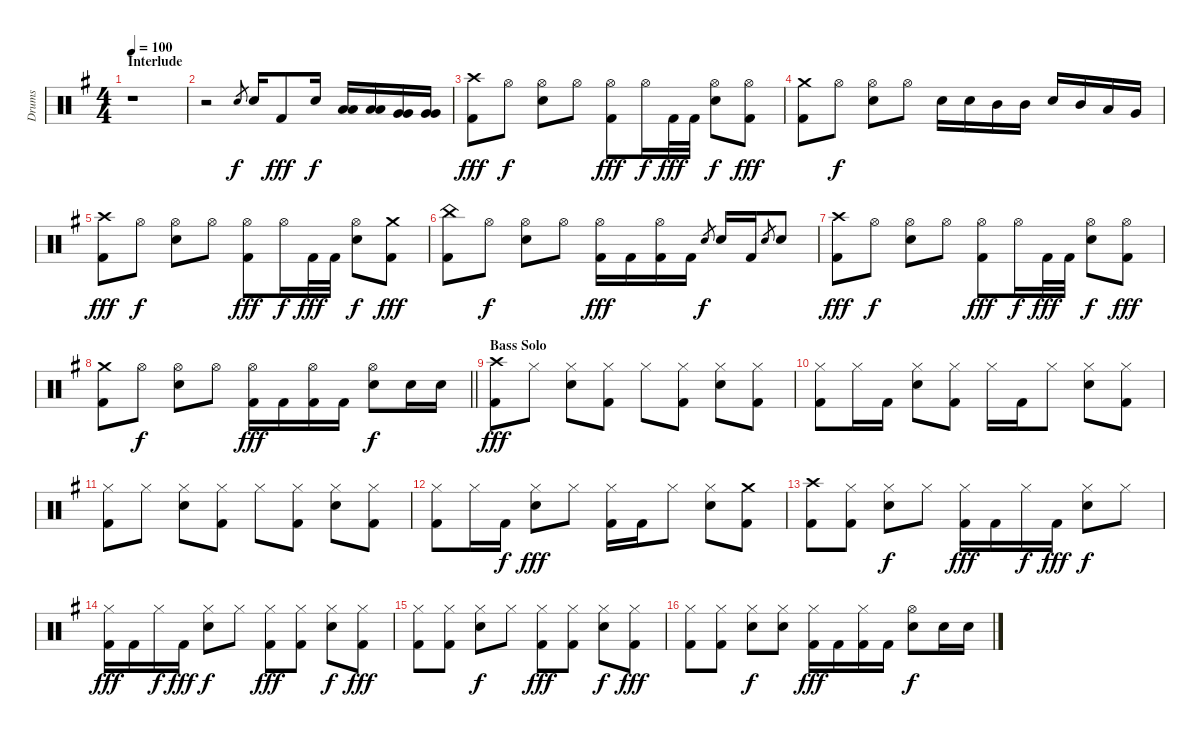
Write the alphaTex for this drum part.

\track ("Drums" "Drums") {instrument percussion}
\staff {score}
\articulation defaults
\ts (4 4)
\section ("" "Interlude")
\tempo 100
\clef neutral
\ks eminor
r.1{dy fff} |
r.2 "Snare (hit) 2".8{gr dy f} "Snare (hit) 2".16 "Kick (hit) 2".8{dy fff} "Snare (hit) 2".16{dy f} ("Low Tom (hit)" "Low Tom (hit)").16 ("Low Tom (hit)" "Low Tom (hit)").16 ("Very Low Tom (hit)" "Very Low Tom (hit)").16 ("Very Low Tom (hit)" "Very Low Tom (hit)").16 |
("Crash high (hit)" "Kick (hit) 2").8{dy fff} "Hi-Hat (open)".8{dy f} ("Hi-Hat (open)" "Snare (hit) 2").8 "Hi-Hat (open)".8 ("Hi-Hat (open)" "Kick (hit) 2").8{dy fff} "Hi-Hat (open)".16{dy f} "Kick (hit) 2".32{dy fff} "Kick (hit) 2".32 ("Hi-Hat (open)" "Snare (hit) 2").8{dy f} ("Hi-Hat (open)" "Kick (hit) 2").8{dy fff} |
("Crash medium (hit)" "Kick (hit) 2").8 "Hi-Hat (open)".8{dy f} ("Hi-Hat (open)" "Snare (hit) 2").8 "Hi-Hat (open)".8 "Snare (hit) 2".16 "Snare (hit) 2".16 "Mid Tom (hit)".16 "Mid Tom (hit)".16 "Snare (hit) 2".16 "Mid Tom (hit)".16 "Low Tom (hit)".16 "Very Low Tom (hit)".16 |
("Crash high (hit)" "Kick (hit) 2").8{dy fff} "Hi-Hat (open)".8{dy f} ("Hi-Hat (open)" "Snare (hit) 2").8 "Hi-Hat (open)".8 ("Hi-Hat (open)" "Kick (hit) 2").8{dy fff} "Hi-Hat (open)".16{dy f} "Kick (hit) 2".32{dy fff} "Kick (hit) 2".32 ("Hi-Hat (open)" "Snare (hit) 2").8{dy f} ("Crash medium (hit)" "Kick (hit) 2").8{dy fff} |
("China (hit)" "Kick (hit) 2").8 "Hi-Hat (open)".8{dy f} ("Hi-Hat (open)" "Snare (hit) 2").8 "Hi-Hat (open)".8 ("Hi-Hat (open)" "Kick (hit) 2").16{dy fff} "Kick (hit) 2".16 ("Hi-Hat (open)" "Kick (hit) 2").16 "Kick (hit) 2".16 "Snare (hit) 2".8{gr dy f} "Snare (hit) 2".16 "Kick (hit) 2".16 "Snare (hit) 2".8{gr} "Snare (hit) 2".8 |
("Crash high (hit)" "Kick (hit) 2").8{dy fff} "Hi-Hat (open)".8{dy f} ("Hi-Hat (open)" "Snare (hit) 2").8 "Hi-Hat (open)".8 ("Hi-Hat (open)" "Kick (hit) 2").8{dy fff} "Hi-Hat (open)".16{dy f} "Kick (hit) 2".32{dy fff} "Kick (hit) 2".32 ("Hi-Hat (open)" "Snare (hit) 2").8{dy f} ("Hi-Hat (open)" "Kick (hit) 2").8{dy fff} |
\barLineRight lightlight
("Crash medium (hit)" "Kick (hit) 2").8 "Hi-Hat (open)".8{dy f} ("Hi-Hat (open)" "Snare (hit) 2").8 "Hi-Hat (open)".8 ("Hi-Hat (open)" "Kick (hit) 2").16{dy fff} "Kick (hit) 2".16 ("Hi-Hat (open)" "Kick (hit) 2").16 "Kick (hit) 2".16 ("Hi-Hat (open)" "Snare (hit) 2").8{dy f} "Snare (hit) 2".16 "Snare (hit) 2".16 |
\section ("" "Bass Solo")
("Crash high (hit)" "Kick (hit) 2").8{dy fff} "Hi-Hat (closed)".8 ("Hi-Hat (closed)" "Snare (hit) 2").8 ("Hi-Hat (closed)" "Kick (hit) 2").8 "Hi-Hat (closed)".8 ("Hi-Hat (closed)" "Kick (hit) 2").8 ("Hi-Hat (closed)" "Snare (hit) 2").8 ("Hi-Hat (closed)" "Kick (hit) 2").8 |
("Hi-Hat (closed)" "Kick (hit) 2").8 "Hi-Hat (closed)".16 "Kick (hit) 2".16 ("Hi-Hat (closed)" "Snare (hit) 2").8 ("Hi-Hat (closed)" "Kick (hit) 2").8 "Hi-Hat (closed)".16 "Kick (hit) 2".16 "Hi-Hat (closed)".8 ("Hi-Hat (closed)" "Snare (hit) 2").8 ("Hi-Hat (closed)" "Kick (hit) 2").8 |
("Hi-Hat (closed)" "Kick (hit) 2").8 "Hi-Hat (closed)".8 ("Hi-Hat (closed)" "Snare (hit) 2").8 ("Hi-Hat (closed)" "Kick (hit) 2").8 "Hi-Hat (closed)".8 ("Hi-Hat (closed)" "Kick (hit) 2").8 ("Hi-Hat (closed)" "Snare (hit) 2").8 ("Hi-Hat (closed)" "Kick (hit) 2").8 |
("Hi-Hat (closed)" "Kick (hit) 2").8 "Hi-Hat (closed)".16 "Kick (hit) 2".16{dy f} ("Hi-Hat (closed)" "Snare (hit) 2").8{dy fff} "Hi-Hat (closed)".8 ("Hi-Hat (closed)" "Kick (hit) 2").16 "Kick (hit) 2".16 "Hi-Hat (closed)".8 ("Hi-Hat (closed)" "Snare (hit) 2").8 ("Crash medium (hit)" "Kick (hit) 2").8 |
("Crash high (hit)" "Kick (hit) 2").8 ("Hi-Hat (closed)" "Kick (hit) 2").8 ("Hi-Hat (closed)" "Snare (hit) 2").8{dy f} "Hi-Hat (closed)".8 ("Hi-Hat (closed)" "Kick (hit) 2").16{dy fff} "Kick (hit) 2".16 "Hi-Hat (closed)".16{dy f} "Kick (hit) 2".16{dy fff} ("Hi-Hat (closed)" "Snare (hit) 2").8{dy f} "Hi-Hat (closed)".8 |
("Hi-Hat (closed)" "Kick (hit) 2").16{dy fff} "Kick (hit) 2".16 "Hi-Hat (closed)".16{dy f} "Kick (hit) 2".16{dy fff} ("Hi-Hat (closed)" "Snare (hit) 2").8{dy f} "Hi-Hat (closed)".8 ("Hi-Hat (closed)" "Kick (hit) 2").8{dy fff} ("Hi-Hat (closed)" "Kick (hit) 2").8 ("Hi-Hat (closed)" "Snare (hit) 2").8{dy f} ("Hi-Hat (closed)" "Kick (hit) 2").8{dy fff} |
("Hi-Hat (closed)" "Kick (hit) 2").8 ("Hi-Hat (closed)" "Kick (hit) 2").8 ("Hi-Hat (closed)" "Snare (hit) 2").8{dy f} "Hi-Hat (closed)".8 ("Hi-Hat (closed)" "Kick (hit) 2").8{dy fff} ("Hi-Hat (closed)" "Kick (hit) 2").8 ("Hi-Hat (closed)" "Snare (hit) 2").8{dy f} ("Hi-Hat (closed)" "Kick (hit) 2").8{dy fff} |
("Hi-Hat (closed)" "Kick (hit) 2").8 ("Hi-Hat (closed)" "Kick (hit) 2").8 ("Hi-Hat (closed)" "Snare (hit) 2").8{dy f} ("Hi-Hat (closed)" "Snare (hit) 2").8 ("Hi-Hat (closed)" "Kick (hit) 2").16{dy fff} "Kick (hit) 2".16 ("Hi-Hat (closed)" "Kick (hit) 2").16 "Kick (hit) 2".16 ("Hi-Hat (open)" "Snare (hit) 2").8{dy f} "Snare (hit) 2".16 "Snare (hit) 2".16
